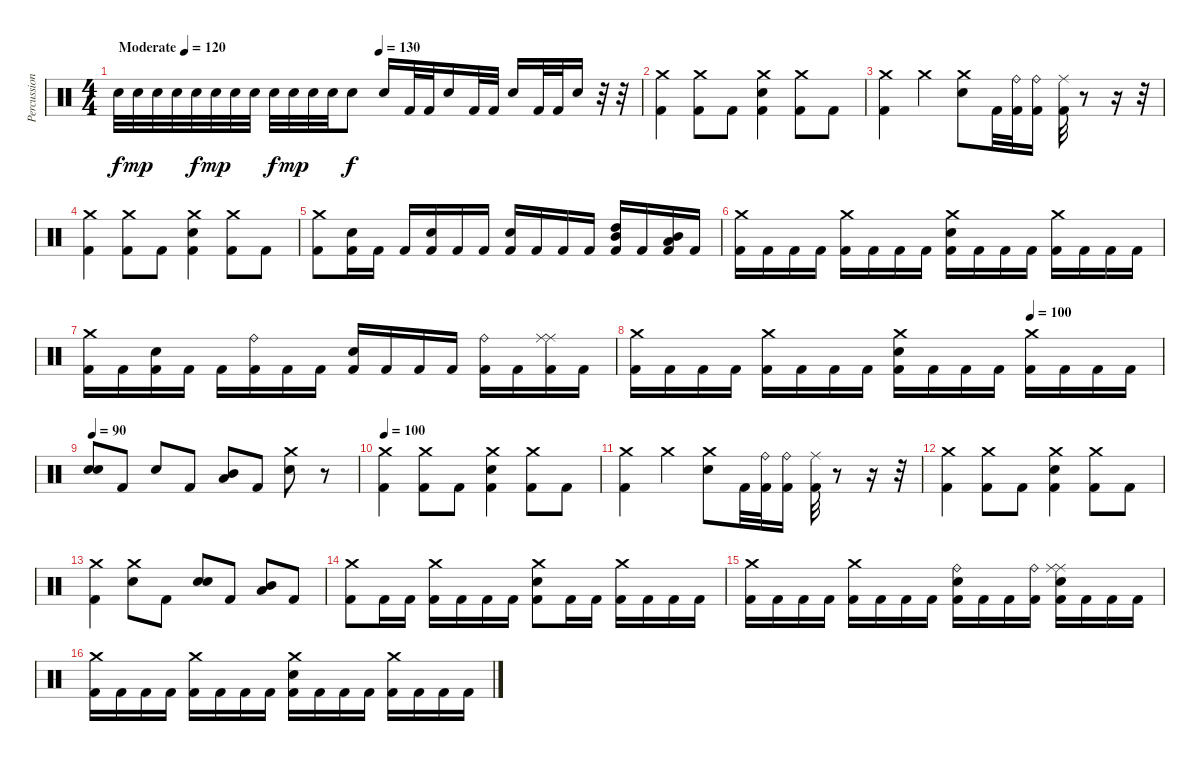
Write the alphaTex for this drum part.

\track ("Percussion" "Percussion") {instrument percussion}
\staff {score}
\articulation defaults
\ts (4 4)
\tempo (120 "Moderate")
\tempo (130 0.5)
\tempo (120 "Moderate")
\clef neutral
\ks c "Electric Snare (hit)".32{dy f} "Electric Snare (hit)".32{dy mp} "Electric Snare (hit)".32 "Electric Snare (hit)".32 "Electric Snare (hit)".32{dy f} "Electric Snare (hit)".32{dy mp} "Electric Snare (hit)".32 "Electric Snare (hit)".32 "Electric Snare (hit)".32{dy f} "Electric Snare (hit)".32{dy mp} "Electric Snare (hit)".32 "Electric Snare (hit)".32 "Electric Snare (hit)".8{dy f} "Electric Snare (hit)".16 "Kick (hit) 2".32 "Kick (hit) 2".32 "Electric Snare (hit)".16 "Kick (hit) 2".32 "Kick (hit) 2".32 "Electric Snare (hit)".16 "Kick (hit) 2".32 "Kick (hit) 2".32 "Electric Snare (hit)".16
r.32 r.32 |
("Crash medium (hit)" "Kick (hit) 2").4 ("Crash medium (hit)" "Kick (hit) 2").8 "Kick (hit) 2".8 ("Crash medium (hit)" "Electric Snare (hit)" "Kick (hit) 2").4 ("Crash medium (hit)" "Kick (hit) 2").8 "Kick (hit) 2".8 |
("Crash medium (hit)" "Kick (hit) 2").4 "Crash medium (hit)".4 ("Crash medium (hit)" "Electric Snare (hit)").8 "Kick (hit) 2".32 ("Ride (bell)" "Kick (hit) 2").32 ("Ride (bell)" "Kick (hit) 2").16 ("Ride (middle)" "Kick (hit) 2").32 r.8 r.16 r.32 |
("Crash medium (hit)" "Kick (hit) 2").4 ("Crash medium (hit)" "Kick (hit) 2").8 "Kick (hit) 2".8 ("Crash medium (hit)" "Electric Snare (hit)" "Kick (hit) 2").4 ("Crash medium (hit)" "Kick (hit) 2").8 "Kick (hit) 2".8 |
("Crash medium (hit)" "Kick (hit) 2").8 ("Kick (hit) 2" "Electric Snare (hit)").16 "Kick (hit) 2".16 "Kick (hit) 2".16 ("Electric Snare (hit)" "Kick (hit) 2").16 "Kick (hit) 2".16 "Kick (hit) 2".16 ("Electric Snare (hit)" "Kick (hit) 2").16 "Kick (hit) 2".16 "Kick (hit) 2".16 "Kick (hit) 2".16 ("High Tom (hit)" "Mid Tom (hit)" "Kick (hit) 2").16 "Kick (hit) 2".16 ("Low Tom (hit)" "Mid Tom (hit)" "Kick (hit) 2").16 "Kick (hit) 2".16 |
("Crash medium (hit)" "Kick (hit) 2").16 "Kick (hit) 2".16 "Kick (hit) 2".16 "Kick (hit) 2".16 ("Crash medium (hit)" "Kick (hit) 2").16 "Kick (hit) 2".16 "Kick (hit) 2".16 "Kick (hit) 2".16 ("Electric Snare (hit)" "Crash medium (hit)" "Kick (hit) 2").16 "Kick (hit) 2".16 "Kick (hit) 2".16 "Kick (hit) 2".16 ("Crash medium (hit)" "Kick (hit) 2").16 "Kick (hit) 2".16 "Kick (hit) 2".16 "Kick (hit) 2".16 |
("Crash medium (hit)" "Kick (hit) 2").16 "Kick (hit) 2".16 ("Kick (hit) 2" "Electric Snare (hit)").16 "Kick (hit) 2".16 "Kick (hit) 2".16 ("Ride (bell)" "Kick (hit) 2").16 "Kick (hit) 2".16 "Kick (hit) 2".16 ("Electric Snare (hit)" "Kick (hit) 2").16 "Kick (hit) 2".16 "Kick (hit) 2".16 "Kick (hit) 2".16 ("Ride (bell)" "Kick (hit) 2").16 "Kick (hit) 2".16 ("Ride (middle)" "Kick (hit) 2" "Ride (middle)").16 "Kick (hit) 2".16 |
\tempo (100 0.75)
("Crash medium (hit)" "Kick (hit) 2").16 "Kick (hit) 2".16 "Kick (hit) 2".16 "Kick (hit) 2".16 ("Crash medium (hit)" "Kick (hit) 2").16 "Kick (hit) 2".16 "Kick (hit) 2".16 "Kick (hit) 2".16 ("Electric Snare (hit)" "Crash medium (hit)" "Kick (hit) 2").16 "Kick (hit) 2".16 "Kick (hit) 2".16 "Kick (hit) 2".16 ("Crash medium (hit)" "Kick (hit) 2").16 "Kick (hit) 2".16 "Kick (hit) 2".16 "Kick (hit) 2".16 |
\tempo 90
("Electric Snare (hit)" "Electric Snare (hit)").8 "Kick (hit) 2".8 "Electric Snare (hit)".8 "Kick (hit) 2".8 ("Low Tom (hit)" "Mid Tom (hit)").8 "Kick (hit) 2".8 ("Crash medium (hit)" "Electric Snare (hit)").8 r.8 |
\tempo 100
("Crash medium (hit)" "Kick (hit) 2").4 ("Crash medium (hit)" "Kick (hit) 2").8 "Kick (hit) 2".8 ("Crash medium (hit)" "Electric Snare (hit)" "Kick (hit) 2").4 ("Crash medium (hit)" "Kick (hit) 2").8 "Kick (hit) 2".8 |
("Crash medium (hit)" "Kick (hit) 2").4 "Crash medium (hit)".4 ("Crash medium (hit)" "Electric Snare (hit)").8 "Kick (hit) 2".32 ("Ride (bell)" "Kick (hit) 2").32 ("Ride (bell)" "Kick (hit) 2").16 ("Ride (middle)" "Kick (hit) 2").32 r.8 r.16 r.32 |
("Crash medium (hit)" "Kick (hit) 2").4 ("Crash medium (hit)" "Kick (hit) 2").8 "Kick (hit) 2".8 ("Crash medium (hit)" "Electric Snare (hit)" "Kick (hit) 2").4 ("Crash medium (hit)" "Kick (hit) 2").8 "Kick (hit) 2".8 |
("Crash medium (hit)" "Kick (hit) 2").4 ("Crash medium (hit)" "Electric Snare (hit)").8 "Kick (hit) 2".8 ("Electric Snare (hit)" "Electric Snare (hit)").8{bd 60} "Kick (hit) 2".8 ("Mid Tom (hit)" "Low Tom (hit)").8{bd 60} "Kick (hit) 2".8 |
("Crash medium (hit)" "Kick (hit) 2").8 "Kick (hit) 2".16 "Kick (hit) 2".16 ("Crash medium (hit)" "Kick (hit) 2").16 "Kick (hit) 2".16 "Kick (hit) 2".16 "Kick (hit) 2".16 ("Electric Snare (hit)" "Crash medium (hit)" "Kick (hit) 2").8 "Kick (hit) 2".16 "Kick (hit) 2".16 ("Crash medium (hit)" "Kick (hit) 2").16 "Kick (hit) 2".16 "Kick (hit) 2".16 "Kick (hit) 2".16 |
("Crash medium (hit)" "Kick (hit) 2").16 "Kick (hit) 2".16 "Kick (hit) 2".16 "Kick (hit) 2".16 ("Crash medium (hit)" "Kick (hit) 2").16 "Kick (hit) 2".16 "Kick (hit) 2".16 "Kick (hit) 2".16 ("Electric Snare (hit)" "Kick (hit) 2" "Ride (bell)").16 "Kick (hit) 2".16 "Kick (hit) 2".16 ("Kick (hit) 2" "Ride (bell)").16 ("Electric Snare (hit)" "Kick (hit) 2" "Ride (middle)" "Ride (middle)").16 "Kick (hit) 2".16 "Kick (hit) 2".16 "Kick (hit) 2".16 |
("Crash medium (hit)" "Kick (hit) 2").16 "Kick (hit) 2".16 "Kick (hit) 2".16 "Kick (hit) 2".16 ("Crash medium (hit)" "Kick (hit) 2").16 "Kick (hit) 2".16 "Kick (hit) 2".16 "Kick (hit) 2".16 ("Electric Snare (hit)" "Crash medium (hit)" "Kick (hit) 2").16 "Kick (hit) 2".16 "Kick (hit) 2".16 "Kick (hit) 2".16 ("Crash medium (hit)" "Kick (hit) 2").16 "Kick (hit) 2".16 "Kick (hit) 2".16 "Kick (hit) 2".16
